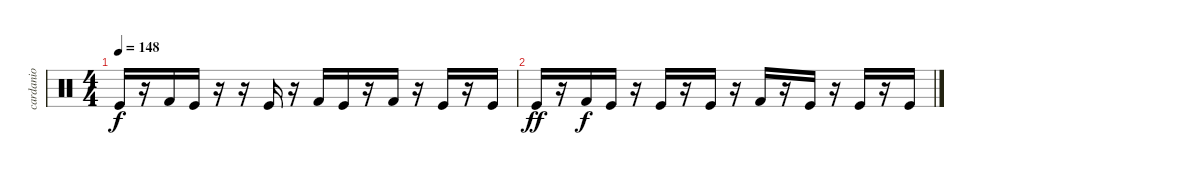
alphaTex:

\track ("cardanio" "cardanio") {instrument percussion}
\staff {score}
\articulation defaults
\ts (4 4)
\tempo 148
\clef neutral
\ks c "Kick (hit)".16{dy f}
r.16 "Kick (hit) 2".16 "Kick (hit)".16 r.16 r.16 "Kick (hit)".16 r.16 "Kick (hit) 2".16 "Kick (hit)".16 r.16 "Kick (hit) 2".16 r.16 "Kick (hit)".16 r.16 "Kick (hit)".16 |
"Kick (hit)".16{dy ff} r.16 "Kick (hit) 2".16{dy f} "Kick (hit)".16 r.16 "Kick (hit)".16 r.16 "Kick (hit)".16 r.16 "Kick (hit) 2".16 r.16 "Kick (hit)".16 r.16 "Kick (hit)".16 r.16 "Kick (hit)".16
